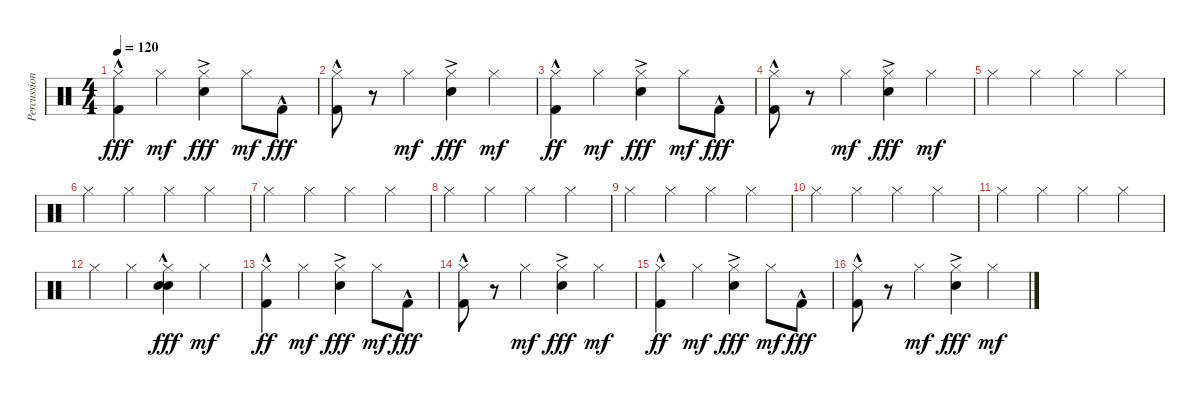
\track ("Percussion" "Percussion") {instrument percussion}
\staff {score}
\articulation defaults
\ts (4 4)
\tempo 120
\clef neutral
\ks c
("Hi-Hat (closed)" "Kick (hit) 2"{hac}).4{dy fff} "Hi-Hat (closed)".4{dy mf} ("Hi-Hat (closed)" "Electric Snare (hit)"{ac}).4{dy fff} "Hi-Hat (closed)".8{dy mf} "Kick (hit) 2"{hac}.8{dy fff} |
("Hi-Hat (closed)" "Kick (hit) 2"{hac}).8 r.8 "Hi-Hat (closed)".4{dy mf} ("Hi-Hat (closed)" "Electric Snare (hit)"{ac}).4{dy fff} "Hi-Hat (closed)".4{dy mf} |
("Hi-Hat (closed)" "Kick (hit) 2"{hac}).4{dy ff} "Hi-Hat (closed)".4{dy mf} ("Hi-Hat (closed)" "Electric Snare (hit)"{ac}).4{dy fff} "Hi-Hat (closed)".8{dy mf} "Kick (hit) 2"{hac}.8{dy fff} |
("Hi-Hat (closed)" "Kick (hit) 2"{hac}).8 r.8 "Hi-Hat (closed)".4{dy mf} ("Hi-Hat (closed)" "Electric Snare (hit)"{ac}).4{dy fff} "Hi-Hat (closed)".4{dy mf} |
"Hi-Hat (closed)".4 "Hi-Hat (closed)".4 "Hi-Hat (closed)".4 "Hi-Hat (closed)".4 |
"Hi-Hat (closed)".4 "Hi-Hat (closed)".4 "Hi-Hat (closed)".4 "Hi-Hat (closed)".4 |
"Hi-Hat (closed)".4 "Hi-Hat (closed)".4 "Hi-Hat (closed)".4 "Hi-Hat (closed)".4 |
"Hi-Hat (closed)".4 "Hi-Hat (closed)".4 "Hi-Hat (closed)".4 "Hi-Hat (closed)".4 |
"Hi-Hat (closed)".4 "Hi-Hat (closed)".4 "Hi-Hat (closed)".4 "Hi-Hat (closed)".4 |
"Hi-Hat (closed)".4 "Hi-Hat (closed)".4 "Hi-Hat (closed)".4 "Hi-Hat (closed)".4 |
"Hi-Hat (closed)".4 "Hi-Hat (closed)".4 "Hi-Hat (closed)".4 "Hi-Hat (closed)".4 |
"Hi-Hat (closed)".4 "Hi-Hat (closed)".4 ("Hi-Hat (closed)" "Snare (hit) 2" "Electric Snare (hit)"{hac}).4{dy fff} "Hi-Hat (closed)".4{dy mf} |
("Hi-Hat (closed)" "Kick (hit) 2"{hac}).4{dy ff} "Hi-Hat (closed)".4{dy mf} ("Hi-Hat (closed)" "Electric Snare (hit)"{ac}).4{dy fff} "Hi-Hat (closed)".8{dy mf} "Kick (hit) 2"{hac}.8{dy fff} |
("Hi-Hat (closed)" "Kick (hit) 2"{hac}).8 r.8 "Hi-Hat (closed)".4{dy mf} ("Hi-Hat (closed)" "Electric Snare (hit)"{ac}).4{dy fff} "Hi-Hat (closed)".4{dy mf} |
("Hi-Hat (closed)" "Kick (hit) 2"{hac}).4{dy ff} "Hi-Hat (closed)".4{dy mf} ("Hi-Hat (closed)" "Electric Snare (hit)"{ac}).4{dy fff} "Hi-Hat (closed)".8{dy mf} "Kick (hit) 2"{hac}.8{dy fff} |
("Hi-Hat (closed)" "Kick (hit) 2"{hac}).8 r.8 "Hi-Hat (closed)".4{dy mf} ("Hi-Hat (closed)" "Electric Snare (hit)"{ac}).4{dy fff} "Hi-Hat (closed)".4{dy mf}
